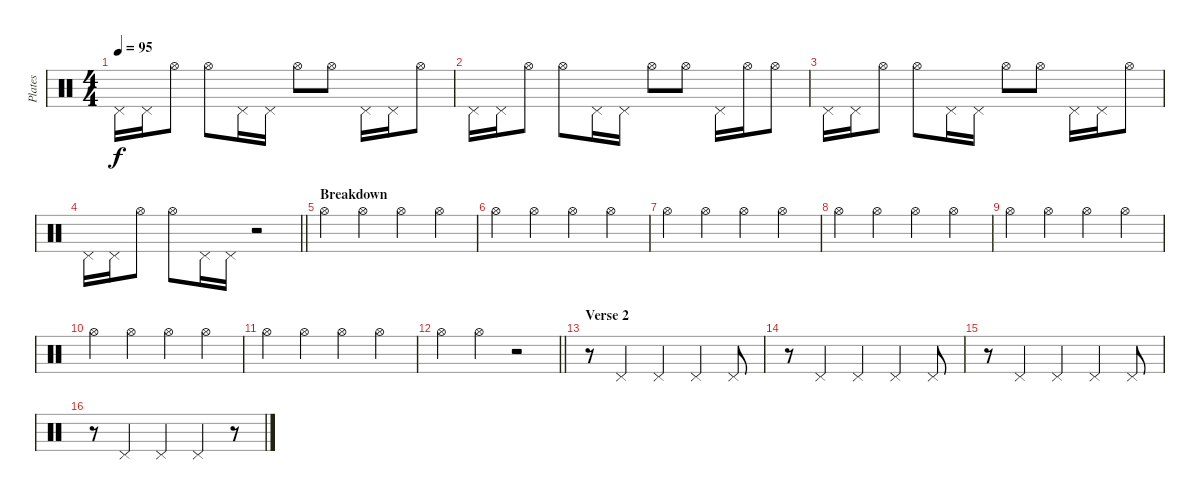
\track ("Plates" "Plates") {instrument percussion}
\staff {score}
\articulation defaults
\ts (4 4)
\tempo 95
\clef neutral
\ks c "Pedal Hi-Hat (hit)".16{dy f} "Pedal Hi-Hat (hit)".16 "Hi-Hat (open)".8 "Hi-Hat (open)".8 "Pedal Hi-Hat (hit)".16 "Pedal Hi-Hat (hit)".16 "Hi-Hat (open)".8 "Hi-Hat (open)".8 "Pedal Hi-Hat (hit)".16 "Pedal Hi-Hat (hit)".16 "Hi-Hat (open)".8
|
"Pedal Hi-Hat (hit)".16 "Pedal Hi-Hat (hit)".16 "Hi-Hat (open)".8 "Hi-Hat (open)".8 "Pedal Hi-Hat (hit)".16 "Pedal Hi-Hat (hit)".16 "Hi-Hat (open)".8 "Hi-Hat (open)".8 "Pedal Hi-Hat (hit)".16 "Hi-Hat (open)".16 "Hi-Hat (open)".8 |
"Pedal Hi-Hat (hit)".16 "Pedal Hi-Hat (hit)".16 "Hi-Hat (open)".8 "Hi-Hat (open)".8 "Pedal Hi-Hat (hit)".16 "Pedal Hi-Hat (hit)".16 "Hi-Hat (open)".8 "Hi-Hat (open)".8 "Pedal Hi-Hat (hit)".16 "Pedal Hi-Hat (hit)".16 "Hi-Hat (open)".8 |
\barLineRight lightlight "Pedal Hi-Hat (hit)".16 "Pedal Hi-Hat (hit)".16 "Hi-Hat (open)".8 "Hi-Hat (open)".8 "Pedal Hi-Hat (hit)".16 "Pedal Hi-Hat (hit)".16
r.2 |
\section ("" "Breakdown")
"Hi-Hat (open)".4 "Hi-Hat (open)".4 "Hi-Hat (open)".4 "Hi-Hat (open)".4 |
"Hi-Hat (open)".4 "Hi-Hat (open)".4 "Hi-Hat (open)".4 "Hi-Hat (open)".4 |
"Hi-Hat (open)".4 "Hi-Hat (open)".4 "Hi-Hat (open)".4 "Hi-Hat (open)".4 |
"Hi-Hat (open)".4 "Hi-Hat (open)".4 "Hi-Hat (open)".4 "Hi-Hat (open)".4 |
"Hi-Hat (open)".4 "Hi-Hat (open)".4 "Hi-Hat (open)".4 "Hi-Hat (open)".4 |
"Hi-Hat (open)".4 "Hi-Hat (open)".4 "Hi-Hat (open)".4 "Hi-Hat (open)".4 |
"Hi-Hat (open)".4 "Hi-Hat (open)".4 "Hi-Hat (open)".4 "Hi-Hat (open)".4 |
\barLineRight lightlight "Hi-Hat (open)".4 "Hi-Hat (open)".4
r.2 |
\section ("" "Verse 2")
r.8 "Pedal Hi-Hat (hit)".4 "Pedal Hi-Hat (hit)".4 "Pedal Hi-Hat (hit)".4 "Pedal Hi-Hat (hit)".8 |
r.8 "Pedal Hi-Hat (hit)".4 "Pedal Hi-Hat (hit)".4 "Pedal Hi-Hat (hit)".4 "Pedal Hi-Hat (hit)".8 |
r.8 "Pedal Hi-Hat (hit)".4 "Pedal Hi-Hat (hit)".4 "Pedal Hi-Hat (hit)".4 "Pedal Hi-Hat (hit)".8 |
r.8 "Pedal Hi-Hat (hit)".4 "Pedal Hi-Hat (hit)".4 "Pedal Hi-Hat (hit)".4 r.8
